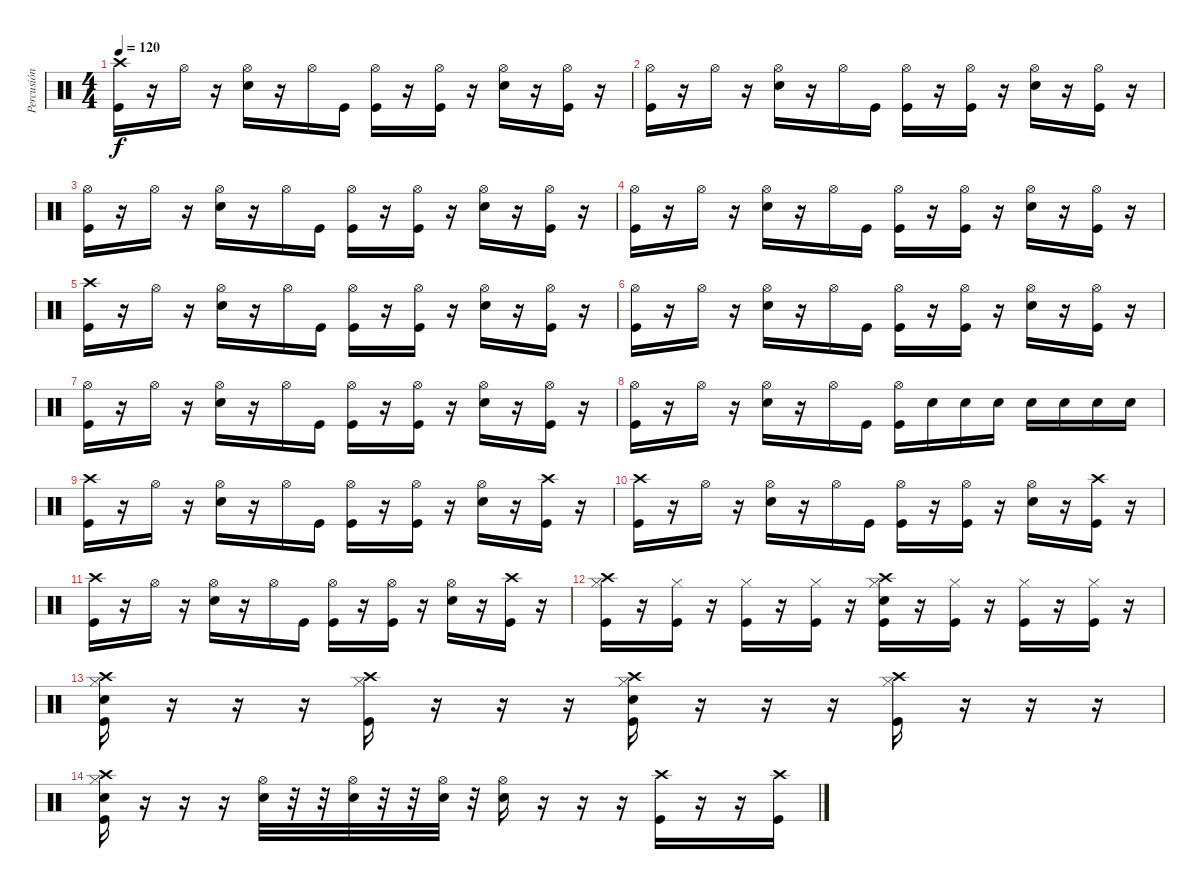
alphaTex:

\track ("Percusión" "Percusión") {instrument percussion}
\staff {score}
\articulation defaults
\ts (4 4)
\tempo 120
\clef neutral
\ks c
("Kick (hit)" "Crash high (hit)").16{dy f} r.16 "Hi-Hat (open)".16 r.16 ("Snare (hit) 2" "Hi-Hat (open)").16 r.16 "Hi-Hat (open)".16 "Kick (hit)".16 ("Kick (hit)" "Hi-Hat (open)").16 r.16 ("Kick (hit)" "Hi-Hat (open)").16 r.16 ("Snare (hit) 2" "Hi-Hat (open)").16 r.16 ("Kick (hit)" "Hi-Hat (open)").16 r.16 |
("Kick (hit)" "Hi-Hat (open)").16 r.16 "Hi-Hat (open)".16 r.16 ("Snare (hit) 2" "Hi-Hat (open)").16 r.16 "Hi-Hat (open)".16 "Kick (hit)".16 ("Kick (hit)" "Hi-Hat (open)").16 r.16 ("Kick (hit)" "Hi-Hat (open)").16 r.16 ("Snare (hit) 2" "Hi-Hat (open)").16 r.16 ("Kick (hit)" "Hi-Hat (open)").16 r.16 |
("Kick (hit)" "Hi-Hat (open)").16 r.16 "Hi-Hat (open)".16 r.16 ("Snare (hit) 2" "Hi-Hat (open)").16 r.16 "Hi-Hat (open)".16 "Kick (hit)".16 ("Kick (hit)" "Hi-Hat (open)").16 r.16 ("Kick (hit)" "Hi-Hat (open)").16 r.16 ("Snare (hit) 2" "Hi-Hat (open)").16 r.16 ("Kick (hit)" "Hi-Hat (open)").16 r.16 |
("Kick (hit)" "Hi-Hat (open)").16 r.16 "Hi-Hat (open)".16 r.16 ("Snare (hit) 2" "Hi-Hat (open)").16 r.16 "Hi-Hat (open)".16 "Kick (hit)".16 ("Kick (hit)" "Hi-Hat (open)").16 r.16 ("Kick (hit)" "Hi-Hat (open)").16 r.16 ("Snare (hit) 2" "Hi-Hat (open)").16 r.16 ("Kick (hit)" "Hi-Hat (open)").16 r.16 |
("Kick (hit)" "Crash high (hit)").16 r.16 "Hi-Hat (open)".16 r.16 ("Snare (hit) 2" "Hi-Hat (open)").16 r.16 "Hi-Hat (open)".16 "Kick (hit)".16 ("Kick (hit)" "Hi-Hat (open)").16 r.16 ("Kick (hit)" "Hi-Hat (open)").16 r.16 ("Snare (hit) 2" "Hi-Hat (open)").16 r.16 ("Kick (hit)" "Hi-Hat (open)").16 r.16 |
("Kick (hit)" "Hi-Hat (open)").16 r.16 "Hi-Hat (open)".16 r.16 ("Snare (hit) 2" "Hi-Hat (open)").16 r.16 "Hi-Hat (open)".16 "Kick (hit)".16 ("Kick (hit)" "Hi-Hat (open)").16 r.16 ("Kick (hit)" "Hi-Hat (open)").16 r.16 ("Snare (hit) 2" "Hi-Hat (open)").16 r.16 ("Kick (hit)" "Hi-Hat (open)").16 r.16 |
("Kick (hit)" "Hi-Hat (open)").16 r.16 "Hi-Hat (open)".16 r.16 ("Snare (hit) 2" "Hi-Hat (open)").16 r.16 "Hi-Hat (open)".16 "Kick (hit)".16 ("Kick (hit)" "Hi-Hat (open)").16 r.16 ("Kick (hit)" "Hi-Hat (open)").16 r.16 ("Snare (hit) 2" "Hi-Hat (open)").16 r.16 ("Kick (hit)" "Hi-Hat (open)").16 r.16 |
("Kick (hit)" "Hi-Hat (open)").16 r.16 "Hi-Hat (open)".16 r.16 ("Snare (hit) 2" "Hi-Hat (open)").16 r.16 "Hi-Hat (open)".16 "Kick (hit)".16 ("Kick (hit)" "Hi-Hat (open)").16 "Snare (hit) 2".16 "Snare (hit) 2".16 "Snare (hit) 2".16 "Snare (hit) 2".16 "Snare (hit) 2".16 "Snare (hit) 2".16 "Snare (hit) 2".16 |
("Kick (hit)" "Crash high (hit)").16 r.16 "Hi-Hat (open)".16 r.16 ("Snare (hit) 2" "Hi-Hat (open)").16 r.16 "Hi-Hat (open)".16 "Kick (hit)".16 ("Kick (hit)" "Hi-Hat (open)").16 r.16 ("Kick (hit)" "Hi-Hat (open)").16 r.16 ("Snare (hit) 2" "Hi-Hat (open)").16 r.16 ("Kick (hit)" "Crash high (hit)").16 r.16 |
("Kick (hit)" "Crash high (hit)").16 r.16 "Hi-Hat (open)".16 r.16 ("Snare (hit) 2" "Hi-Hat (open)").16 r.16 "Hi-Hat (open)".16 "Kick (hit)".16 ("Kick (hit)" "Hi-Hat (open)").16 r.16 ("Kick (hit)" "Hi-Hat (open)").16 r.16 ("Snare (hit) 2" "Hi-Hat (open)").16 r.16 ("Kick (hit)" "Crash high (hit)").16 r.16 |
("Kick (hit)" "Crash high (hit)").16 r.16 "Hi-Hat (open)".16 r.16 ("Snare (hit) 2" "Hi-Hat (open)").16 r.16 "Hi-Hat (open)".16 "Kick (hit)".16 ("Kick (hit)" "Hi-Hat (open)").16 r.16 ("Kick (hit)" "Hi-Hat (open)").16 r.16 ("Snare (hit) 2" "Hi-Hat (open)").16 r.16 ("Kick (hit)" "Crash high (hit)").16 r.16 |
("Kick (hit)" "Hi-Hat (closed)" "Crash high (hit)").16 r.16 ("Kick (hit)" "Hi-Hat (closed)").16 r.16 ("Kick (hit)" "Hi-Hat (closed)").16 r.16 ("Kick (hit)" "Hi-Hat (closed)").16 r.16 ("Crash high (hit)" "Hi-Hat (closed)" "Kick (hit)" "Snare (hit) 2").16 r.16 ("Kick (hit)" "Hi-Hat (closed)").16 r.16 ("Kick (hit)" "Hi-Hat (closed)").16 r.16 ("Kick (hit)" "Hi-Hat (closed)").16 r.16 |
("Kick (hit)" "Hi-Hat (closed)" "Crash high (hit)" "Snare (hit) 2").16 r.16 r.16 r.16 ("Kick (hit)" "Hi-Hat (closed)" "Crash high (hit)").16 r.16 r.16 r.16 ("Kick (hit)" "Hi-Hat (closed)" "Crash high (hit)" "Snare (hit) 2").16 r.16 r.16 r.16 ("Kick (hit)" "Hi-Hat (closed)" "Crash high (hit)").16 r.16 r.16 r.16 |
("Kick (hit)" "Hi-Hat (closed)" "Crash high (hit)" "Snare (hit) 2").16 r.16 r.16 r.16 ("Snare (hit) 2" "Hi-Hat (open)").32 r.32 r.32 ("Snare (hit) 2" "Hi-Hat (open)").32 r.32 r.32 ("Snare (hit) 2" "Hi-Hat (open)").32 r.32 ("Snare (hit) 2" "Hi-Hat (open)").16 r.16 r.16 r.16 ("Kick (hit)" "Crash high (hit)").16 r.16 r.16 ("Kick (hit)" "Crash high (hit)").16
